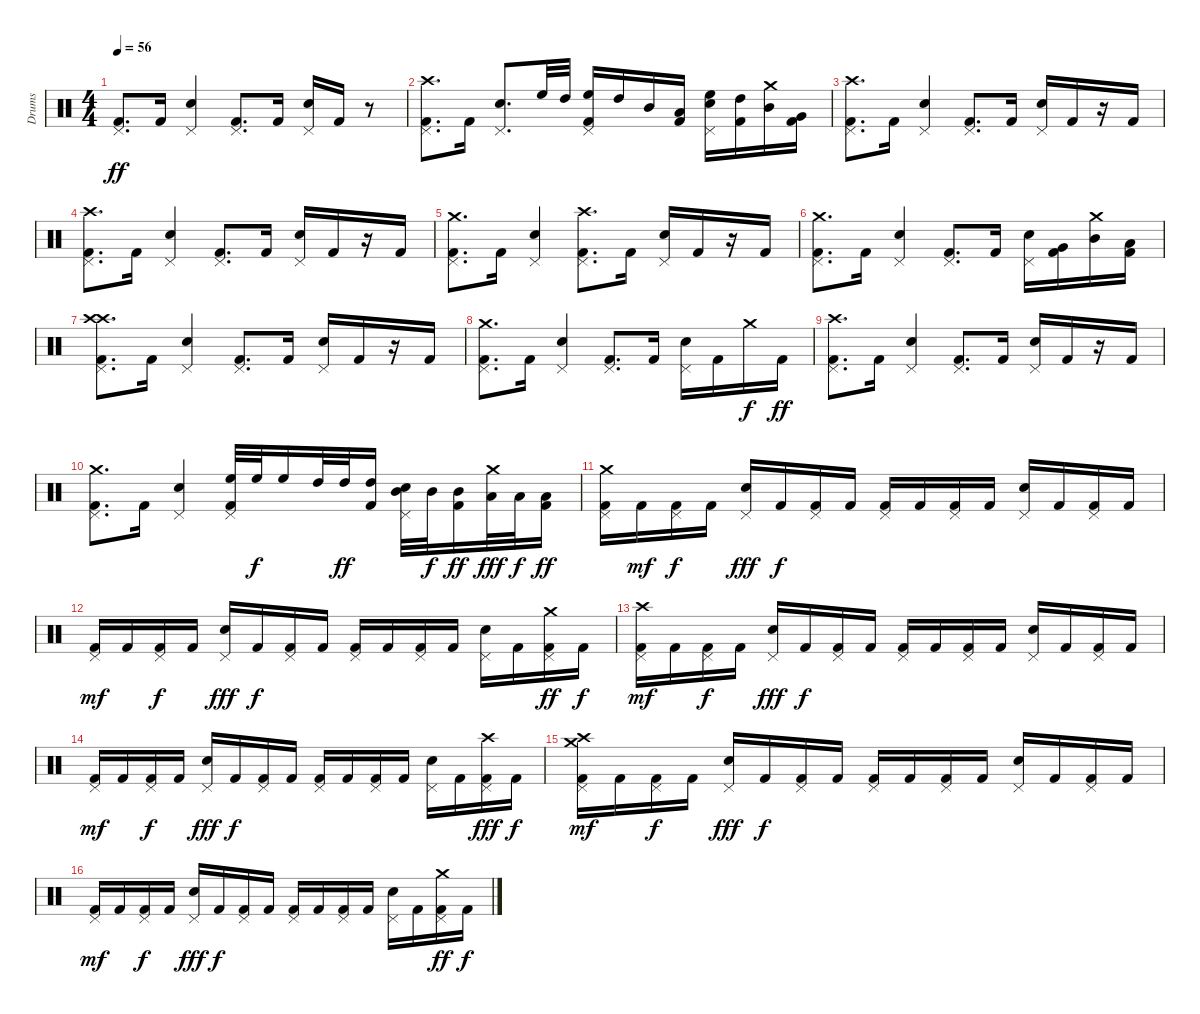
\track ("Drums" "Drums") {instrument percussion}
\staff {score}
\articulation defaults
\ts (4 4)
\tempo 56
\clef neutral
\ks c
("Pedal Hi-Hat (hit)" "Kick (hit) 2").8{d dy ff} "Kick (hit) 2".16 ("Snare (hit) 2" "Pedal Hi-Hat (hit)").4 ("Kick (hit) 2" "Pedal Hi-Hat (hit)").8{d} "Kick (hit) 2".16 ("Snare (hit) 2" "Pedal Hi-Hat (hit)").16 "Kick (hit) 2".16 r.8 |
("Pedal Hi-Hat (hit)" "Crash high (hit)" "Kick (hit) 2").8{d} "Kick (hit) 2".16 ("Snare (hit) 2" "Pedal Hi-Hat (hit)").8{d} "High Floor Tom (hit)".32 "High Tom (hit)".32 ("Kick (hit) 2" "High Floor Tom (hit)" "Pedal Hi-Hat (hit)").16 "High Tom (hit)".16 "Mid Tom (hit)".16 ("Low Tom (hit)" "Kick (hit) 2").16 ("High Floor Tom (hit)" "Snare (hit) 2" "Pedal Hi-Hat (hit)").16 ("High Tom (hit)" "Kick (hit) 2").16 ("Crash medium (hit)" "Mid Tom (hit)").16 ("Kick (hit) 2" "Very Low Tom (hit)").16 |
("Crash high (hit)" "Pedal Hi-Hat (hit)" "Kick (hit) 2").8{d} "Kick (hit) 2".16 ("Snare (hit) 2" "Pedal Hi-Hat (hit)").4 ("Kick (hit) 2" "Pedal Hi-Hat (hit)").8{d} "Kick (hit) 2".16 ("Snare (hit) 2" "Pedal Hi-Hat (hit)").16 "Kick (hit) 2".16 r.16 "Kick (hit) 2".16 |
("Crash high (hit)" "Pedal Hi-Hat (hit)" "Kick (hit) 2").8{d} "Kick (hit) 2".16 ("Snare (hit) 2" "Pedal Hi-Hat (hit)").4 ("Kick (hit) 2" "Pedal Hi-Hat (hit)").8{d} "Kick (hit) 2".16 ("Snare (hit) 2" "Pedal Hi-Hat (hit)").16 "Kick (hit) 2".16 r.16 "Kick (hit) 2".16 |
("Crash medium (hit)" "Pedal Hi-Hat (hit)" "Kick (hit) 2").8{d} "Kick (hit) 2".16 ("Snare (hit) 2" "Pedal Hi-Hat (hit)").4 ("Kick (hit) 2" "Pedal Hi-Hat (hit)" "Crash high (hit)").8{d} "Kick (hit) 2".16 ("Snare (hit) 2" "Pedal Hi-Hat (hit)").16 "Kick (hit) 2".16 r.16 "Kick (hit) 2".16 |
("Crash medium (hit)" "Pedal Hi-Hat (hit)" "Kick (hit) 2").8{d} "Kick (hit) 2".16 ("Snare (hit) 2" "Pedal Hi-Hat (hit)").4 ("Kick (hit) 2" "Pedal Hi-Hat (hit)").8{d} "Kick (hit) 2".16 ("Snare (hit) 2" "Pedal Hi-Hat (hit)").16 ("Very Low Tom (hit)" "Kick (hit) 2").16 ("Mid Tom (hit)" "Crash medium (hit)").16 ("Low Tom (hit)" "Kick (hit) 2").16 |
("Crash high (hit)" "Crash high (hit)" "Pedal Hi-Hat (hit)" "Kick (hit) 2").8{d} "Kick (hit) 2".16 ("Snare (hit) 2" "Pedal Hi-Hat (hit)").4 ("Kick (hit) 2" "Pedal Hi-Hat (hit)").8{d} "Kick (hit) 2".16 ("Snare (hit) 2" "Pedal Hi-Hat (hit)").16 "Kick (hit) 2".16 r.16 "Kick (hit) 2".16 |
("Crash medium (hit)" "Pedal Hi-Hat (hit)" "Kick (hit) 2").8{d} "Kick (hit) 2".16 ("Snare (hit) 2" "Pedal Hi-Hat (hit)").4 ("Kick (hit) 2" "Pedal Hi-Hat (hit)").8{d} "Kick (hit) 2".16 ("Snare (hit) 2" "Pedal Hi-Hat (hit)").16 "Kick (hit) 2".16 "Crash medium (hit)".16{dy f} "Kick (hit) 2".16{dy ff} |
("Crash high (hit)" "Pedal Hi-Hat (hit)" "Kick (hit) 2").8{d} "Kick (hit) 2".16 ("Snare (hit) 2" "Pedal Hi-Hat (hit)").4 ("Kick (hit) 2" "Pedal Hi-Hat (hit)").8{d} "Kick (hit) 2".16 ("Snare (hit) 2" "Pedal Hi-Hat (hit)").16 "Kick (hit) 2".16 r.16 "Kick (hit) 2".16 |
("Crash medium (hit)" "Pedal Hi-Hat (hit)" "Kick (hit) 2").8{d} "Kick (hit) 2".16 ("Snare (hit) 2" "Pedal Hi-Hat (hit)").4 ("Kick (hit) 2" "Pedal Hi-Hat (hit)" "High Floor Tom (hit)").32 "High Floor Tom (hit)".32{dy f} "High Floor Tom (hit)".16 "High Tom (hit)".32 "High Tom (hit)".32{dy ff} ("Kick (hit) 2" "High Tom (hit)").16 ("Mid Tom (hit)" "Snare (hit) 2" "Pedal Hi-Hat (hit)").32 "Mid Tom (hit)".32{dy f} ("Kick (hit) 2" "Mid Tom (hit)").16{dy ff} ("Low Tom (hit)" "Crash medium (hit)").32{dy fff} "Low Tom (hit)".32{dy f} ("Kick (hit) 2" "Low Tom (hit)").16{dy ff} |
("Pedal Hi-Hat (hit)" "Kick (hit) 2" "Crash medium (hit)").16 "Kick (hit) 2".16{dy mf} ("Pedal Hi-Hat (hit)" "Kick (hit) 2").16{dy f} "Kick (hit) 2".16 ("Pedal Hi-Hat (hit)" "Snare (hit) 2").16{dy fff} "Kick (hit) 2".16{dy f} ("Pedal Hi-Hat (hit)" "Kick (hit) 2").16 "Kick (hit) 2".16 ("Pedal Hi-Hat (hit)" "Kick (hit) 2").16 "Kick (hit) 2".16 ("Pedal Hi-Hat (hit)" "Kick (hit) 2").16 "Kick (hit) 2".16 ("Pedal Hi-Hat (hit)" "Snare (hit) 2").16 "Kick (hit) 2".16 ("Pedal Hi-Hat (hit)" "Kick (hit) 2").16 "Kick (hit) 2".16 |
("Pedal Hi-Hat (hit)" "Kick (hit) 2").16{dy mf} "Kick (hit) 2".16 ("Pedal Hi-Hat (hit)" "Kick (hit) 2").16{dy f} "Kick (hit) 2".16 ("Pedal Hi-Hat (hit)" "Snare (hit) 2").16{dy fff} "Kick (hit) 2".16{dy f} ("Pedal Hi-Hat (hit)" "Kick (hit) 2").16 "Kick (hit) 2".16 ("Pedal Hi-Hat (hit)" "Kick (hit) 2").16 "Kick (hit) 2".16 ("Pedal Hi-Hat (hit)" "Kick (hit) 2").16 "Kick (hit) 2".16 ("Pedal Hi-Hat (hit)" "Snare (hit) 2").16 "Kick (hit) 2".16 ("Pedal Hi-Hat (hit)" "Kick (hit) 2" "Crash medium (hit)").16{dy ff} "Kick (hit) 2".16{dy f} |
("Crash high (hit)" "Pedal Hi-Hat (hit)" "Kick (hit) 2").16{dy mf} "Kick (hit) 2".16 ("Pedal Hi-Hat (hit)" "Kick (hit) 2").16{dy f} "Kick (hit) 2".16 ("Pedal Hi-Hat (hit)" "Snare (hit) 2").16{dy fff} "Kick (hit) 2".16{dy f} ("Pedal Hi-Hat (hit)" "Kick (hit) 2").16 "Kick (hit) 2".16 ("Pedal Hi-Hat (hit)" "Kick (hit) 2").16 "Kick (hit) 2".16 ("Pedal Hi-Hat (hit)" "Kick (hit) 2").16 "Kick (hit) 2".16 ("Pedal Hi-Hat (hit)" "Snare (hit) 2").16 "Kick (hit) 2".16 ("Pedal Hi-Hat (hit)" "Kick (hit) 2").16 "Kick (hit) 2".16 |
("Pedal Hi-Hat (hit)" "Kick (hit) 2").16{dy mf} "Kick (hit) 2".16 ("Pedal Hi-Hat (hit)" "Kick (hit) 2").16{dy f} "Kick (hit) 2".16 ("Pedal Hi-Hat (hit)" "Snare (hit) 2").16{dy fff} "Kick (hit) 2".16{dy f} ("Pedal Hi-Hat (hit)" "Kick (hit) 2").16 "Kick (hit) 2".16 ("Pedal Hi-Hat (hit)" "Kick (hit) 2").16 "Kick (hit) 2".16 ("Pedal Hi-Hat (hit)" "Kick (hit) 2").16 "Kick (hit) 2".16 ("Pedal Hi-Hat (hit)" "Snare (hit) 2").16 "Kick (hit) 2".16 ("Crash high (hit)" "Pedal Hi-Hat (hit)" "Kick (hit) 2").16{dy fff} "Kick (hit) 2".16{dy f} |
("Crash medium (hit)" "Crash high (hit)" "Pedal Hi-Hat (hit)" "Kick (hit) 2").16{dy mf} "Kick (hit) 2".16 ("Pedal Hi-Hat (hit)" "Kick (hit) 2").16{dy f} "Kick (hit) 2".16 ("Pedal Hi-Hat (hit)" "Snare (hit) 2").16{dy fff} "Kick (hit) 2".16{dy f} ("Pedal Hi-Hat (hit)" "Kick (hit) 2").16 "Kick (hit) 2".16 ("Pedal Hi-Hat (hit)" "Kick (hit) 2").16 "Kick (hit) 2".16 ("Pedal Hi-Hat (hit)" "Kick (hit) 2").16 "Kick (hit) 2".16 ("Pedal Hi-Hat (hit)" "Snare (hit) 2").16 "Kick (hit) 2".16 ("Pedal Hi-Hat (hit)" "Kick (hit) 2").16 "Kick (hit) 2".16 |
("Pedal Hi-Hat (hit)" "Kick (hit) 2").16{dy mf} "Kick (hit) 2".16 ("Pedal Hi-Hat (hit)" "Kick (hit) 2").16{dy f} "Kick (hit) 2".16 ("Pedal Hi-Hat (hit)" "Snare (hit) 2").16{dy fff} "Kick (hit) 2".16{dy f} ("Pedal Hi-Hat (hit)" "Kick (hit) 2").16 "Kick (hit) 2".16 ("Pedal Hi-Hat (hit)" "Kick (hit) 2").16 "Kick (hit) 2".16 ("Pedal Hi-Hat (hit)" "Kick (hit) 2").16 "Kick (hit) 2".16 ("Pedal Hi-Hat (hit)" "Snare (hit) 2").16 "Kick (hit) 2".16 ("Pedal Hi-Hat (hit)" "Kick (hit) 2" "Crash medium (hit)").16{dy ff} "Kick (hit) 2".16{dy f}
